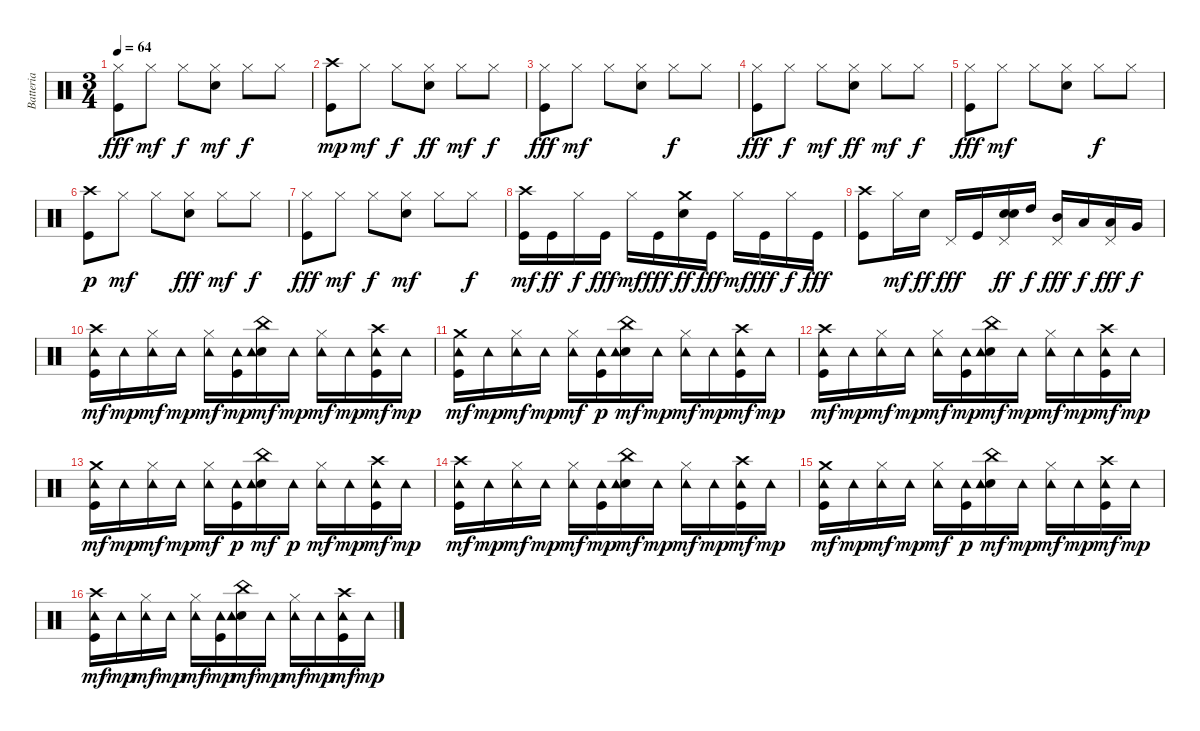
\track ("Batteria" "Batteria") {instrument percussion}
\staff {score}
\articulation defaults
\ts (3 4)
\tempo 64
\clef neutral
\ks c
("Kick (hit)" "Hi-Hat (closed)").8{dy fff} "Hi-Hat (closed)".8{dy mf} "Hi-Hat (closed)".8{dy f} ("Electric Snare (hit)" "Hi-Hat (closed)").8{dy mf} "Hi-Hat (closed)".8{dy f} "Hi-Hat (closed)".8 |
("Kick (hit)" "Crash high (hit)").8{dy mp} "Hi-Hat (closed)".8{dy mf} "Hi-Hat (closed)".8{dy f} ("Electric Snare (hit)" "Hi-Hat (closed)").8{dy ff} "Hi-Hat (closed)".8{dy mf} "Hi-Hat (closed)".8{dy f} |
("Kick (hit)" "Hi-Hat (closed)").8{dy fff} "Hi-Hat (closed)".8{dy mf} "Hi-Hat (closed)".8 ("Electric Snare (hit)" "Hi-Hat (closed)").8 "Hi-Hat (closed)".8{dy f} "Hi-Hat (closed)".8 |
("Kick (hit)" "Hi-Hat (closed)").8{dy fff} "Hi-Hat (closed)".8{dy f} "Hi-Hat (closed)".8{dy mf} ("Electric Snare (hit)" "Hi-Hat (closed)").8{dy ff} "Hi-Hat (closed)".8{dy mf} "Hi-Hat (closed)".8{dy f} |
("Kick (hit)" "Hi-Hat (closed)").8{dy fff} "Hi-Hat (closed)".8{dy mf} "Hi-Hat (closed)".8 ("Electric Snare (hit)" "Hi-Hat (closed)").8 "Hi-Hat (closed)".8{dy f} "Hi-Hat (closed)".8 |
("Kick (hit)" "Crash high (hit)").8{dy p} "Hi-Hat (closed)".8{dy mf} "Hi-Hat (closed)".8 ("Electric Snare (hit)" "Hi-Hat (closed)").8{dy fff} "Hi-Hat (closed)".8{dy mf} "Hi-Hat (closed)".8{dy f} |
("Kick (hit)" "Hi-Hat (closed)").8{dy fff} "Hi-Hat (closed)".8{dy mf} "Hi-Hat (closed)".8{dy f} ("Electric Snare (hit)" "Hi-Hat (closed)").8{dy mf} "Hi-Hat (closed)".8 "Hi-Hat (closed)".8{dy f} |
("Kick (hit)" "Crash high (hit)").16{dy mf} "Kick (hit)".16{dy ff} "Hi-Hat (closed)".16{dy f} "Kick (hit)".16{dy fff} "Hi-Hat (closed)".16{dy mf} "Kick (hit)".16{dy fff} ("Electric Snare (hit)" "Crash medium (hit)").16{dy ff} "Kick (hit)".16{dy fff} "Hi-Hat (closed)".16{dy mf} "Kick (hit)".16{dy fff} "Hi-Hat (closed)".16{dy f} "Kick (hit)".16{dy fff} |
("Kick (hit)" "Crash high (hit)").8 "Hi-Hat (closed)".16{dy mf} "Electric Snare (hit)".16{dy ff} "Pedal Hi-Hat (hit)".16{dy fff} "Kick (hit)".16 ("Electric Snare (hit)" "Pedal Hi-Hat (hit)" "Electric Snare (hit)").16{dy ff} "High Tom (hit)".16{dy f} ("Pedal Hi-Hat (hit)" "Mid Tom (hit)").16{dy fff} "Low Tom (hit)".16{dy f} ("Pedal Hi-Hat (hit)" "Low Tom (hit)").16{dy fff} "Very Low Tom (hit)".16{dy f} |
("Kick (hit)" "Crash high (hit)" "Tambourine (hit)").16{dy mf} "Tambourine (hit)".16{dy mp} ("Hi-Hat (closed)" "Tambourine (hit)").16{dy mf} "Tambourine (hit)".16{dy mp} ("Hi-Hat (closed)" "Tambourine (hit)").16{dy mf} ("Kick (hit)" "Tambourine (hit)").16{dy mp} ("Electric Snare (hit)" "China (hit)" "Tambourine (hit)").16{dy mf} "Tambourine (hit)".16{dy mp} ("Hi-Hat (closed)" "Tambourine (hit)").16{dy mf} "Tambourine (hit)".16{dy mp} ("Kick (hit)" "Crash high (hit)" "Tambourine (hit)").16{dy mf} "Tambourine (hit)".16{dy mp} |
("Kick (hit)" "Crash medium (hit)" "Tambourine (hit)").16{dy mf} "Tambourine (hit)".16{dy mp} ("Hi-Hat (closed)" "Tambourine (hit)").16{dy mf} "Tambourine (hit)".16{dy mp} ("Hi-Hat (closed)" "Tambourine (hit)").16{dy mf} ("Kick (hit)" "Tambourine (hit)").16{dy p} ("Electric Snare (hit)" "China (hit)" "Tambourine (hit)").16{dy mf} "Tambourine (hit)".16{dy mp} ("Hi-Hat (closed)" "Tambourine (hit)").16{dy mf} "Tambourine (hit)".16{dy mp} ("Kick (hit)" "Crash high (hit)" "Tambourine (hit)").16{dy mf} "Tambourine (hit)".16{dy mp} |
("Kick (hit)" "Crash high (hit)" "Tambourine (hit)").16{dy mf} "Tambourine (hit)".16{dy mp} ("Hi-Hat (closed)" "Tambourine (hit)").16{dy mf} "Tambourine (hit)".16{dy mp} ("Hi-Hat (closed)" "Tambourine (hit)").16{dy mf} ("Kick (hit)" "Tambourine (hit)").16{dy mp} ("Electric Snare (hit)" "China (hit)" "Tambourine (hit)").16{dy mf} "Tambourine (hit)".16{dy mp} ("Hi-Hat (closed)" "Tambourine (hit)").16{dy mf} "Tambourine (hit)".16{dy mp} ("Kick (hit)" "Crash high (hit)" "Tambourine (hit)").16{dy mf} "Tambourine (hit)".16{dy mp} |
("Kick (hit)" "Crash medium (hit)" "Tambourine (hit)").16{dy mf} "Tambourine (hit)".16{dy mp} ("Hi-Hat (closed)" "Tambourine (hit)").16{dy mf} "Tambourine (hit)".16{dy mp} ("Hi-Hat (closed)" "Tambourine (hit)").16{dy mf} ("Kick (hit)" "Tambourine (hit)").16{dy p} ("Electric Snare (hit)" "China (hit)" "Tambourine (hit)").16{dy mf} "Tambourine (hit)".16{dy p} ("Hi-Hat (closed)" "Tambourine (hit)").16{dy mf} "Tambourine (hit)".16{dy mp} ("Kick (hit)" "Crash high (hit)" "Tambourine (hit)").16{dy mf} "Tambourine (hit)".16{dy mp} |
("Kick (hit)" "Crash high (hit)" "Tambourine (hit)").16{dy mf} "Tambourine (hit)".16{dy mp} ("Hi-Hat (closed)" "Tambourine (hit)").16{dy mf} "Tambourine (hit)".16{dy mp} ("Hi-Hat (closed)" "Tambourine (hit)").16{dy mf} ("Kick (hit)" "Tambourine (hit)").16{dy mp} ("Electric Snare (hit)" "China (hit)" "Tambourine (hit)").16{dy mf} "Tambourine (hit)".16{dy mp} ("Hi-Hat (closed)" "Tambourine (hit)").16{dy mf} "Tambourine (hit)".16{dy mp} ("Kick (hit)" "Crash high (hit)" "Tambourine (hit)").16{dy mf} "Tambourine (hit)".16{dy mp} |
("Kick (hit)" "Crash medium (hit)" "Tambourine (hit)").16{dy mf} "Tambourine (hit)".16{dy mp} ("Hi-Hat (closed)" "Tambourine (hit)").16{dy mf} "Tambourine (hit)".16{dy mp} ("Hi-Hat (closed)" "Tambourine (hit)").16{dy mf} ("Kick (hit)" "Tambourine (hit)").16{dy p} ("Electric Snare (hit)" "China (hit)" "Tambourine (hit)").16{dy mf} "Tambourine (hit)".16{dy mp} ("Hi-Hat (closed)" "Tambourine (hit)").16{dy mf} "Tambourine (hit)".16{dy mp} ("Kick (hit)" "Crash high (hit)" "Tambourine (hit)").16{dy mf} "Tambourine (hit)".16{dy mp} |
("Kick (hit)" "Crash high (hit)" "Tambourine (hit)").16{dy mf} "Tambourine (hit)".16{dy mp} ("Hi-Hat (closed)" "Tambourine (hit)").16{dy mf} "Tambourine (hit)".16{dy mp} ("Hi-Hat (closed)" "Tambourine (hit)").16{dy mf} ("Kick (hit)" "Tambourine (hit)").16{dy mp} ("Electric Snare (hit)" "China (hit)" "Tambourine (hit)").16{dy mf} "Tambourine (hit)".16{dy mp} ("Hi-Hat (closed)" "Tambourine (hit)").16{dy mf} "Tambourine (hit)".16{dy mp} ("Kick (hit)" "Crash high (hit)" "Tambourine (hit)").16{dy mf} "Tambourine (hit)".16{dy mp}
